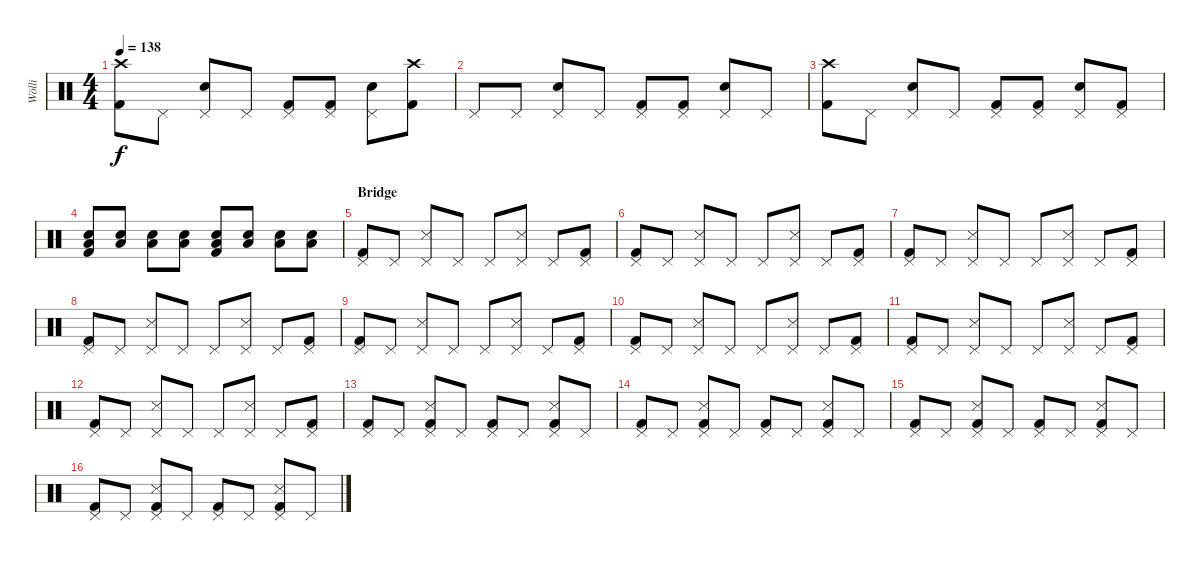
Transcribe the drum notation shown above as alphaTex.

\track ("Wölli" "Wölli") {instrument percussion}
\staff {score}
\articulation defaults
\ts (4 4)
\tempo 138
\clef neutral
\ks c
("Crash high (hit)" "Kick (hit) 2").8{dy f} "Pedal Hi-Hat (hit)".8 ("Pedal Hi-Hat (hit)" "Snare (hit) 2").8 "Pedal Hi-Hat (hit)".8 ("Pedal Hi-Hat (hit)" "Kick (hit) 2").8 ("Pedal Hi-Hat (hit)" "Kick (hit) 2").8 ("Pedal Hi-Hat (hit)" "Snare (hit) 2").8 ("Crash high (hit)" "Kick (hit) 2").8 |
"Pedal Hi-Hat (hit)".8 "Pedal Hi-Hat (hit)".8 ("Pedal Hi-Hat (hit)" "Snare (hit) 2").8 "Pedal Hi-Hat (hit)".8 ("Pedal Hi-Hat (hit)" "Kick (hit) 2").8 ("Pedal Hi-Hat (hit)" "Kick (hit) 2").8 ("Pedal Hi-Hat (hit)" "Snare (hit) 2").8 "Pedal Hi-Hat (hit)".8 |
("Crash high (hit)" "Kick (hit) 2").8 "Pedal Hi-Hat (hit)".8 ("Pedal Hi-Hat (hit)" "Snare (hit) 2").8 "Pedal Hi-Hat (hit)".8 ("Pedal Hi-Hat (hit)" "Kick (hit) 2").8 ("Pedal Hi-Hat (hit)" "Kick (hit) 2").8 ("Pedal Hi-Hat (hit)" "Snare (hit) 2").8 ("Pedal Hi-Hat (hit)" "Kick (hit) 2").8 |
("Low Floor Tom (hit)" "Snare (hit) 2" "Kick (hit) 2").8 ("Low Floor Tom (hit)" "Snare (hit) 2").8 ("Low Floor Tom (hit)" "Snare (hit) 2").8 ("Low Floor Tom (hit)" "Snare (hit) 2").8 ("Low Tom (hit)" "Snare (hit) 2" "Kick (hit) 2").8 ("Low Tom (hit)" "Snare (hit) 2").8 ("Low Tom (hit)" "Snare (hit) 2").8 ("Low Tom (hit)" "Snare (hit) 2").8 |
\section ("" "Bridge")
("Pedal Hi-Hat (hit)" "Kick (hit) 2").8 "Pedal Hi-Hat (hit)".8 ("Pedal Hi-Hat (hit)" "Snare (side stick) 3").8 "Pedal Hi-Hat (hit)".8 "Pedal Hi-Hat (hit)".8 ("Pedal Hi-Hat (hit)" "Snare (side stick) 3").8 "Pedal Hi-Hat (hit)".8 ("Pedal Hi-Hat (hit)" "Kick (hit) 2").8 |
("Pedal Hi-Hat (hit)" "Kick (hit) 2").8 "Pedal Hi-Hat (hit)".8 ("Pedal Hi-Hat (hit)" "Snare (side stick) 3").8 "Pedal Hi-Hat (hit)".8 "Pedal Hi-Hat (hit)".8 ("Pedal Hi-Hat (hit)" "Snare (side stick) 3").8 "Pedal Hi-Hat (hit)".8 ("Pedal Hi-Hat (hit)" "Kick (hit) 2").8 |
("Pedal Hi-Hat (hit)" "Kick (hit) 2").8 "Pedal Hi-Hat (hit)".8 ("Pedal Hi-Hat (hit)" "Snare (side stick) 3").8 "Pedal Hi-Hat (hit)".8 "Pedal Hi-Hat (hit)".8 ("Pedal Hi-Hat (hit)" "Snare (side stick) 3").8 "Pedal Hi-Hat (hit)".8 ("Pedal Hi-Hat (hit)" "Kick (hit) 2").8 |
("Pedal Hi-Hat (hit)" "Kick (hit) 2").8 "Pedal Hi-Hat (hit)".8 ("Pedal Hi-Hat (hit)" "Snare (side stick) 3").8 "Pedal Hi-Hat (hit)".8 "Pedal Hi-Hat (hit)".8 ("Pedal Hi-Hat (hit)" "Snare (side stick) 3").8 "Pedal Hi-Hat (hit)".8 ("Pedal Hi-Hat (hit)" "Kick (hit) 2").8 |
("Pedal Hi-Hat (hit)" "Kick (hit) 2").8 "Pedal Hi-Hat (hit)".8 ("Pedal Hi-Hat (hit)" "Snare (side stick) 3").8 "Pedal Hi-Hat (hit)".8 "Pedal Hi-Hat (hit)".8 ("Pedal Hi-Hat (hit)" "Snare (side stick) 3").8 "Pedal Hi-Hat (hit)".8 ("Pedal Hi-Hat (hit)" "Kick (hit) 2").8 |
("Pedal Hi-Hat (hit)" "Kick (hit) 2").8 "Pedal Hi-Hat (hit)".8 ("Pedal Hi-Hat (hit)" "Snare (side stick) 3").8 "Pedal Hi-Hat (hit)".8 "Pedal Hi-Hat (hit)".8 ("Pedal Hi-Hat (hit)" "Snare (side stick) 3").8 "Pedal Hi-Hat (hit)".8 ("Pedal Hi-Hat (hit)" "Kick (hit) 2").8 |
("Pedal Hi-Hat (hit)" "Kick (hit) 2").8 "Pedal Hi-Hat (hit)".8 ("Pedal Hi-Hat (hit)" "Snare (side stick) 3").8 "Pedal Hi-Hat (hit)".8 "Pedal Hi-Hat (hit)".8 ("Pedal Hi-Hat (hit)" "Snare (side stick) 3").8 "Pedal Hi-Hat (hit)".8 ("Pedal Hi-Hat (hit)" "Kick (hit) 2").8 |
("Pedal Hi-Hat (hit)" "Kick (hit) 2").8 "Pedal Hi-Hat (hit)".8 ("Pedal Hi-Hat (hit)" "Snare (side stick) 3").8 "Pedal Hi-Hat (hit)".8 "Pedal Hi-Hat (hit)".8 ("Pedal Hi-Hat (hit)" "Snare (side stick) 3").8 "Pedal Hi-Hat (hit)".8 ("Pedal Hi-Hat (hit)" "Kick (hit) 2").8 |
("Pedal Hi-Hat (hit)" "Kick (hit) 2").8 "Pedal Hi-Hat (hit)".8 ("Pedal Hi-Hat (hit)" "Snare (side stick) 3" "Kick (hit) 2").8 "Pedal Hi-Hat (hit)".8 ("Pedal Hi-Hat (hit)" "Kick (hit) 2").8 "Pedal Hi-Hat (hit)".8 ("Pedal Hi-Hat (hit)" "Snare (side stick) 3" "Kick (hit) 2").8 "Pedal Hi-Hat (hit)".8 |
("Pedal Hi-Hat (hit)" "Kick (hit) 2").8 "Pedal Hi-Hat (hit)".8 ("Pedal Hi-Hat (hit)" "Snare (side stick) 3" "Kick (hit) 2").8 "Pedal Hi-Hat (hit)".8 ("Pedal Hi-Hat (hit)" "Kick (hit) 2").8 "Pedal Hi-Hat (hit)".8 ("Pedal Hi-Hat (hit)" "Snare (side stick) 3" "Kick (hit) 2").8 "Pedal Hi-Hat (hit)".8 |
("Pedal Hi-Hat (hit)" "Kick (hit) 2").8 "Pedal Hi-Hat (hit)".8 ("Pedal Hi-Hat (hit)" "Snare (side stick) 3" "Kick (hit) 2").8 "Pedal Hi-Hat (hit)".8 ("Pedal Hi-Hat (hit)" "Kick (hit) 2").8 "Pedal Hi-Hat (hit)".8 ("Pedal Hi-Hat (hit)" "Snare (side stick) 3" "Kick (hit) 2").8 "Pedal Hi-Hat (hit)".8 |
("Pedal Hi-Hat (hit)" "Kick (hit) 2").8 "Pedal Hi-Hat (hit)".8 ("Pedal Hi-Hat (hit)" "Snare (side stick) 3" "Kick (hit) 2").8 "Pedal Hi-Hat (hit)".8 ("Pedal Hi-Hat (hit)" "Kick (hit) 2").8 "Pedal Hi-Hat (hit)".8 ("Pedal Hi-Hat (hit)" "Snare (side stick) 3" "Kick (hit) 2").8 "Pedal Hi-Hat (hit)".8
